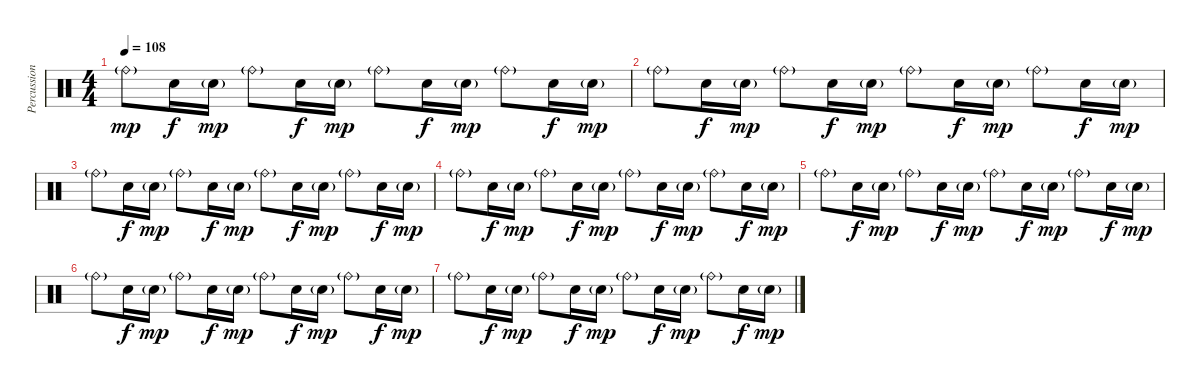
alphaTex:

\track ("Percussioni" "Percussion") {instrument percussion}
\staff {score}
\articulation defaults
\ts (4 4)
\tempo 108
\clef neutral
\ks c "Ride (bell)"{g}.8{dy mp} "Snare (hit) 2".16{dy f} "Snare (hit) 2"{g}.16{dy mp} "Ride (bell)"{g}.8 "Snare (hit) 2".16{dy f} "Snare (hit) 2"{g}.16{dy mp} "Ride (bell)"{g}.8 "Snare (hit) 2".16{dy f} "Snare (hit) 2"{g}.16{dy mp} "Ride (bell)"{g}.8 "Snare (hit) 2".16{dy f} "Snare (hit) 2"{g}.16{dy mp}
|
"Ride (bell)"{g}.8 "Snare (hit) 2".16{dy f} "Snare (hit) 2"{g}.16{dy mp} "Ride (bell)"{g}.8 "Snare (hit) 2".16{dy f} "Snare (hit) 2"{g}.16{dy mp} "Ride (bell)"{g}.8 "Snare (hit) 2".16{dy f} "Snare (hit) 2"{g}.16{dy mp} "Ride (bell)"{g}.8 "Snare (hit) 2".16{dy f} "Snare (hit) 2"{g}.16{dy mp} |
"Ride (bell)"{g}.8 "Snare (hit) 2".16{dy f} "Snare (hit) 2"{g}.16{dy mp} "Ride (bell)"{g}.8 "Snare (hit) 2".16{dy f} "Snare (hit) 2"{g}.16{dy mp} "Ride (bell)"{g}.8 "Snare (hit) 2".16{dy f} "Snare (hit) 2"{g}.16{dy mp} "Ride (bell)"{g}.8 "Snare (hit) 2".16{dy f} "Snare (hit) 2"{g}.16{dy mp} |
"Ride (bell)"{g}.8 "Snare (hit) 2".16{dy f} "Snare (hit) 2"{g}.16{dy mp} "Ride (bell)"{g}.8 "Snare (hit) 2".16{dy f} "Snare (hit) 2"{g}.16{dy mp} "Ride (bell)"{g}.8 "Snare (hit) 2".16{dy f} "Snare (hit) 2"{g}.16{dy mp} "Ride (bell)"{g}.8 "Snare (hit) 2".16{dy f} "Snare (hit) 2"{g}.16{dy mp} |
"Ride (bell)"{g}.8 "Snare (hit) 2".16{dy f} "Snare (hit) 2"{g}.16{dy mp} "Ride (bell)"{g}.8 "Snare (hit) 2".16{dy f} "Snare (hit) 2"{g}.16{dy mp} "Ride (bell)"{g}.8 "Snare (hit) 2".16{dy f} "Snare (hit) 2"{g}.16{dy mp} "Ride (bell)"{g}.8 "Snare (hit) 2".16{dy f} "Snare (hit) 2"{g}.16{dy mp} |
"Ride (bell)"{g}.8 "Snare (hit) 2".16{dy f} "Snare (hit) 2"{g}.16{dy mp} "Ride (bell)"{g}.8 "Snare (hit) 2".16{dy f} "Snare (hit) 2"{g}.16{dy mp} "Ride (bell)"{g}.8 "Snare (hit) 2".16{dy f} "Snare (hit) 2"{g}.16{dy mp} "Ride (bell)"{g}.8 "Snare (hit) 2".16{dy f} "Snare (hit) 2"{g}.16{dy mp} |
"Ride (bell)"{g}.8 "Snare (hit) 2".16{dy f} "Snare (hit) 2"{g}.16{dy mp} "Ride (bell)"{g}.8 "Snare (hit) 2".16{dy f} "Snare (hit) 2"{g}.16{dy mp} "Ride (bell)"{g}.8 "Snare (hit) 2".16{dy f} "Snare (hit) 2"{g}.16{dy mp} "Ride (bell)"{g}.8 "Snare (hit) 2".16{dy f} "Snare (hit) 2"{g}.16{dy mp}
